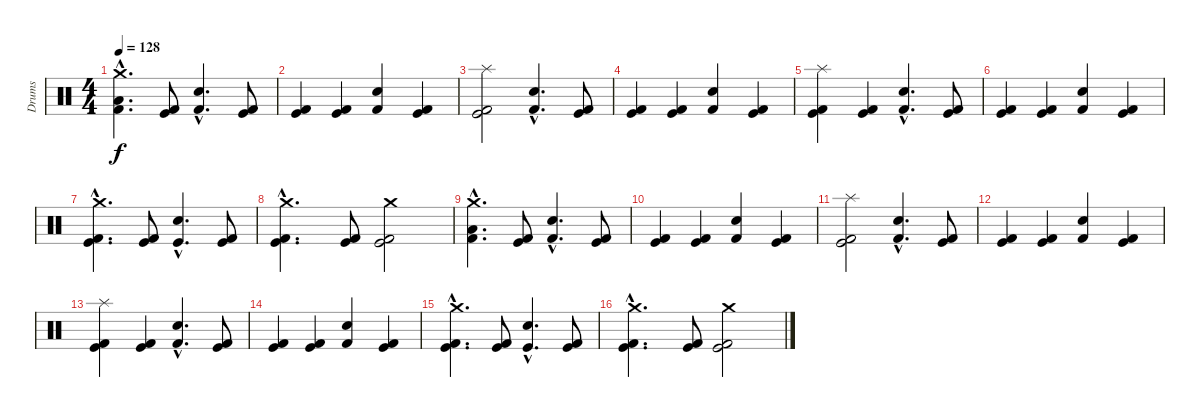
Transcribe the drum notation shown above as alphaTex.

\track ("Drums" "Drums") {instrument percussion}
\staff {score}
\articulation defaults
\ts (4 4)
\tempo 128
\clef neutral
\ks c
("Crash medium (hit)"{hac} "Low Floor Tom (hit)"{hac} "Kick (hit) 2"{hac}).4{d dy f} ("Kick (hit)" "Kick (hit) 2").8 ("Snare (hit) 2"{hac} "Kick (hit) 2"{hac}).4{d} ("Kick (hit)" "Kick (hit) 2").8 |
("Kick (hit)" "Kick (hit) 2").4 ("Kick (hit)" "Kick (hit) 2").4 ("Snare (hit) 2" "Kick (hit) 2").4 ("Kick (hit)" "Kick (hit) 2").4 |
("Splash (hit)" "Kick (hit)" "Kick (hit) 2").2 ("Snare (hit) 2"{hac} "Kick (hit) 2"{hac}).4{d} ("Kick (hit)" "Kick (hit) 2").8 |
("Kick (hit)" "Kick (hit) 2").4 ("Kick (hit)" "Kick (hit) 2").4 ("Snare (hit) 2" "Kick (hit) 2").4 ("Kick (hit)" "Kick (hit) 2").4 |
("Splash (hit)" "Kick (hit)" "Kick (hit) 2").4 ("Kick (hit)" "Kick (hit) 2").4 ("Snare (hit) 2"{hac} "Kick (hit) 2"{hac}).4{d} ("Kick (hit)" "Kick (hit) 2").8 |
("Kick (hit)" "Kick (hit) 2").4 ("Kick (hit)" "Kick (hit) 2").4 ("Snare (hit) 2" "Kick (hit) 2").4 ("Kick (hit)" "Kick (hit) 2").4 |
("Crash medium (hit)"{hac} "Kick (hit)"{hac} "Kick (hit) 2"{hac}).4{d} ("Kick (hit)" "Kick (hit) 2").8 ("Snare (hit) 2"{hac} "Kick (hit)"{hac}).4{d} ("Kick (hit)" "Kick (hit) 2").8 |
("Crash medium (hit)"{hac} "Kick (hit)"{hac} "Kick (hit) 2"{hac}).4{d} ("Kick (hit)" "Kick (hit) 2").8 ("Crash medium (hit)" "Kick (hit)" "Kick (hit) 2").2 |
("Crash medium (hit)"{hac} "Low Floor Tom (hit)"{hac} "Kick (hit) 2"{hac}).4{d} ("Kick (hit)" "Kick (hit) 2").8 ("Snare (hit) 2"{hac} "Kick (hit) 2"{hac}).4{d} ("Kick (hit)" "Kick (hit) 2").8 |
("Kick (hit)" "Kick (hit) 2").4 ("Kick (hit)" "Kick (hit) 2").4 ("Snare (hit) 2" "Kick (hit) 2").4 ("Kick (hit)" "Kick (hit) 2").4 |
("Splash (hit)" "Kick (hit)" "Kick (hit) 2").2 ("Snare (hit) 2"{hac} "Kick (hit) 2"{hac}).4{d} ("Kick (hit)" "Kick (hit) 2").8 |
("Kick (hit)" "Kick (hit) 2").4 ("Kick (hit)" "Kick (hit) 2").4 ("Snare (hit) 2" "Kick (hit) 2").4 ("Kick (hit)" "Kick (hit) 2").4 |
("Splash (hit)" "Kick (hit)" "Kick (hit) 2").4 ("Kick (hit)" "Kick (hit) 2").4 ("Snare (hit) 2"{hac} "Kick (hit) 2"{hac}).4{d} ("Kick (hit)" "Kick (hit) 2").8 |
("Kick (hit)" "Kick (hit) 2").4 ("Kick (hit)" "Kick (hit) 2").4 ("Snare (hit) 2" "Kick (hit) 2").4 ("Kick (hit)" "Kick (hit) 2").4 |
("Crash medium (hit)"{hac} "Kick (hit)"{hac} "Kick (hit) 2"{hac}).4{d} ("Kick (hit)" "Kick (hit) 2").8 ("Snare (hit) 2"{hac} "Kick (hit)"{hac}).4{d} ("Kick (hit)" "Kick (hit) 2").8 |
("Crash medium (hit)"{hac} "Kick (hit)"{hac} "Kick (hit) 2"{hac}).4{d} ("Kick (hit)" "Kick (hit) 2").8 ("Crash medium (hit)" "Kick (hit)" "Kick (hit) 2").2
